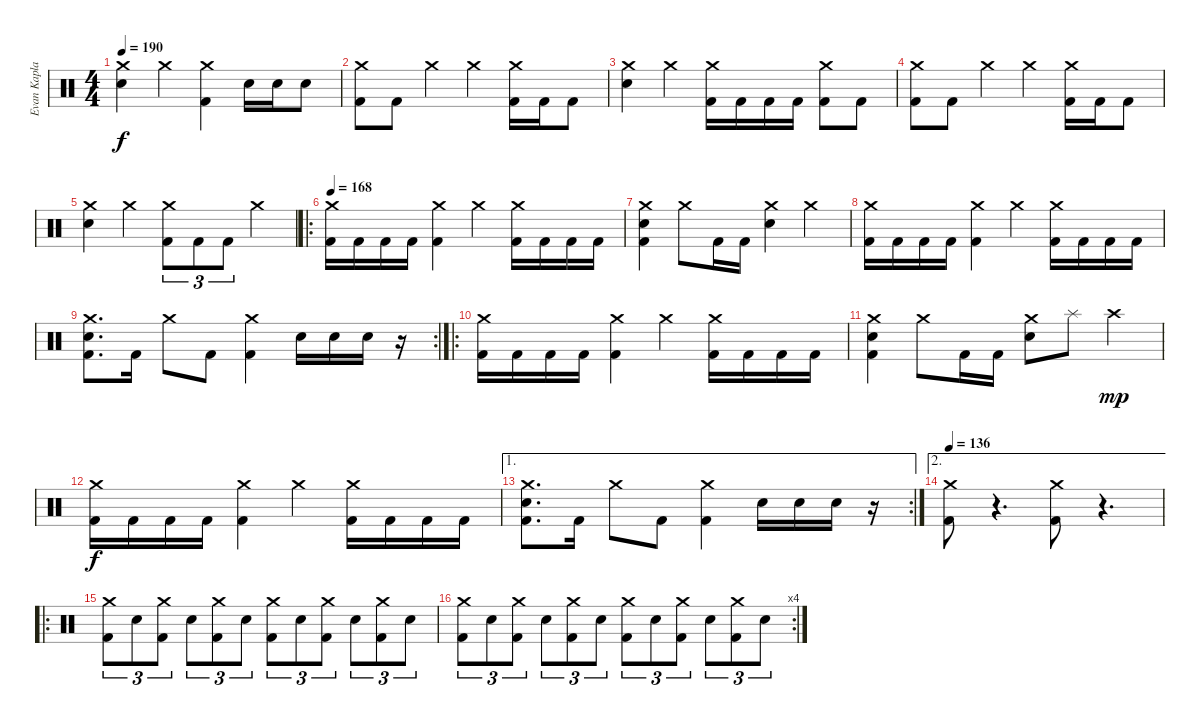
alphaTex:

\track ("Evan Kaplan (Drums)" "Evan Kapla") {instrument percussion}
\staff {score}
\articulation defaults
\ts (4 4)
\tempo 190
\clef neutral
\ks c
("Crash medium (hit)" "Electric Snare (hit)").4{dy f} "Crash medium (hit)".4 ("Crash medium (hit)" "Kick (hit) 2").4 "Electric Snare (hit)".16 "Electric Snare (hit)".16 "Electric Snare (hit)".8 |
("Crash medium (hit)" "Kick (hit) 2").8 "Kick (hit) 2".8 "Crash medium (hit)".4 "Crash medium (hit)".4 ("Crash medium (hit)" "Kick (hit) 2").16 "Kick (hit) 2".16 "Kick (hit) 2".8 |
("Crash medium (hit)" "Electric Snare (hit)").4 "Crash medium (hit)".4 ("Crash medium (hit)" "Kick (hit) 2").16 "Kick (hit) 2".16 "Kick (hit) 2".16 "Kick (hit) 2".16 ("Crash medium (hit)" "Kick (hit) 2").8 "Kick (hit) 2".8 |
("Crash medium (hit)" "Kick (hit) 2").8 "Kick (hit) 2".8 "Crash medium (hit)".4 "Crash medium (hit)".4 ("Crash medium (hit)" "Kick (hit) 2").16 "Kick (hit) 2".16 "Kick (hit) 2".8 |
("Crash medium (hit)" "Electric Snare (hit)").4 "Crash medium (hit)".4 ("Crash medium (hit)" "Kick (hit) 2").8{tu (3 2)} "Kick (hit) 2".8{tu (3 2)} "Kick (hit) 2".8{tu (3 2)} "Crash medium (hit)".4 |
\ro
\tempo 168
("Crash medium (hit)" "Kick (hit) 2").16 "Kick (hit) 2".16 "Kick (hit) 2".16 "Kick (hit) 2".16 ("Crash medium (hit)" "Kick (hit) 2").4 "Crash medium (hit)".4 ("Crash medium (hit)" "Kick (hit) 2").16 "Kick (hit) 2".16 "Kick (hit) 2".16 "Kick (hit) 2".16 |
("Crash medium (hit)" "Electric Snare (hit)" "Kick (hit) 2").4 "Crash medium (hit)".8 "Kick (hit) 2".16 "Kick (hit) 2".16 ("Crash medium (hit)" "Electric Snare (hit)").4 "Crash medium (hit)".4 |
("Crash medium (hit)" "Kick (hit) 2").16 "Kick (hit) 2".16 "Kick (hit) 2".16 "Kick (hit) 2".16 ("Crash medium (hit)" "Kick (hit) 2").4 "Crash medium (hit)".4 ("Crash medium (hit)" "Kick (hit) 2").16 "Kick (hit) 2".16 "Kick (hit) 2".16 "Kick (hit) 2".16 |
\rc 2
("Crash medium (hit)" "Electric Snare (hit)" "Kick (hit) 2").8{d} "Kick (hit) 2".16 "Crash medium (hit)".8 "Kick (hit) 2".8 ("Crash medium (hit)" "Kick (hit) 2").4 "Electric Snare (hit)".16 "Electric Snare (hit)".16 "Electric Snare (hit)".16 r.16 |
\ro
("Crash medium (hit)" "Kick (hit) 2").16 "Kick (hit) 2".16 "Kick (hit) 2".16 "Kick (hit) 2".16 ("Crash medium (hit)" "Kick (hit) 2").4 "Crash medium (hit)".4 ("Crash medium (hit)" "Kick (hit) 2").16 "Kick (hit) 2".16 "Kick (hit) 2".16 "Kick (hit) 2".16 |
("Crash medium (hit)" "Electric Snare (hit)" "Kick (hit) 2").4 "Crash medium (hit)".8 "Kick (hit) 2".16 "Kick (hit) 2".16 ("Crash medium (hit)" "Electric Snare (hit)").8 "Splash (hit)".8 "Crash high (hit)".4{dy mp} |
("Crash medium (hit)" "Kick (hit) 2").16{dy f} "Kick (hit) 2".16 "Kick (hit) 2".16 "Kick (hit) 2".16 ("Crash medium (hit)" "Kick (hit) 2").4 "Crash medium (hit)".4 ("Crash medium (hit)" "Kick (hit) 2").16 "Kick (hit) 2".16 "Kick (hit) 2".16 "Kick (hit) 2".16 |
\ae 1
\rc 2
("Crash medium (hit)" "Electric Snare (hit)" "Kick (hit) 2").8{d} "Kick (hit) 2".16 "Crash medium (hit)".8 "Kick (hit) 2".8 ("Crash medium (hit)" "Kick (hit) 2").4 "Electric Snare (hit)".16 "Electric Snare (hit)".16 "Electric Snare (hit)".16 r.16 |
\ae 2
\tempo 136
("Crash medium (hit)" "Kick (hit) 2").8 r.4{d volume 0} ("Crash medium (hit)" "Kick (hit) 2").8{volume 13} r.4{d volume 0} |
\ro
("Crash medium (hit)" "Kick (hit) 2").8{tu (3 2) volume 13} "Electric Snare (hit)".8{tu (3 2)} ("Crash medium (hit)" "Kick (hit) 2").8{tu (3 2)} "Electric Snare (hit)".8{tu (3 2)} ("Crash medium (hit)" "Kick (hit) 2").8{tu (3 2)} "Electric Snare (hit)".8{tu (3 2)} ("Crash medium (hit)" "Kick (hit) 2").8{tu (3 2)} "Electric Snare (hit)".8{tu (3 2)} ("Crash medium (hit)" "Kick (hit) 2").8{tu (3 2)} "Electric Snare (hit)".8{tu (3 2)} ("Crash medium (hit)" "Kick (hit) 2").8{tu (3 2)} "Electric Snare (hit)".8{tu (3 2)} |
\rc 4
("Crash medium (hit)" "Kick (hit) 2").8{tu (3 2)} "Electric Snare (hit)".8{tu (3 2)} ("Crash medium (hit)" "Kick (hit) 2").8{tu (3 2)} "Electric Snare (hit)".8{tu (3 2)} ("Crash medium (hit)" "Kick (hit) 2").8{tu (3 2)} "Electric Snare (hit)".8{tu (3 2)} ("Crash medium (hit)" "Kick (hit) 2").8{tu (3 2)} "Electric Snare (hit)".8{tu (3 2)} ("Crash medium (hit)" "Kick (hit) 2").8{tu (3 2)} "Electric Snare (hit)".8{tu (3 2)} ("Crash medium (hit)" "Kick (hit) 2").8{tu (3 2)} "Electric Snare (hit)".8{tu (3 2)}
